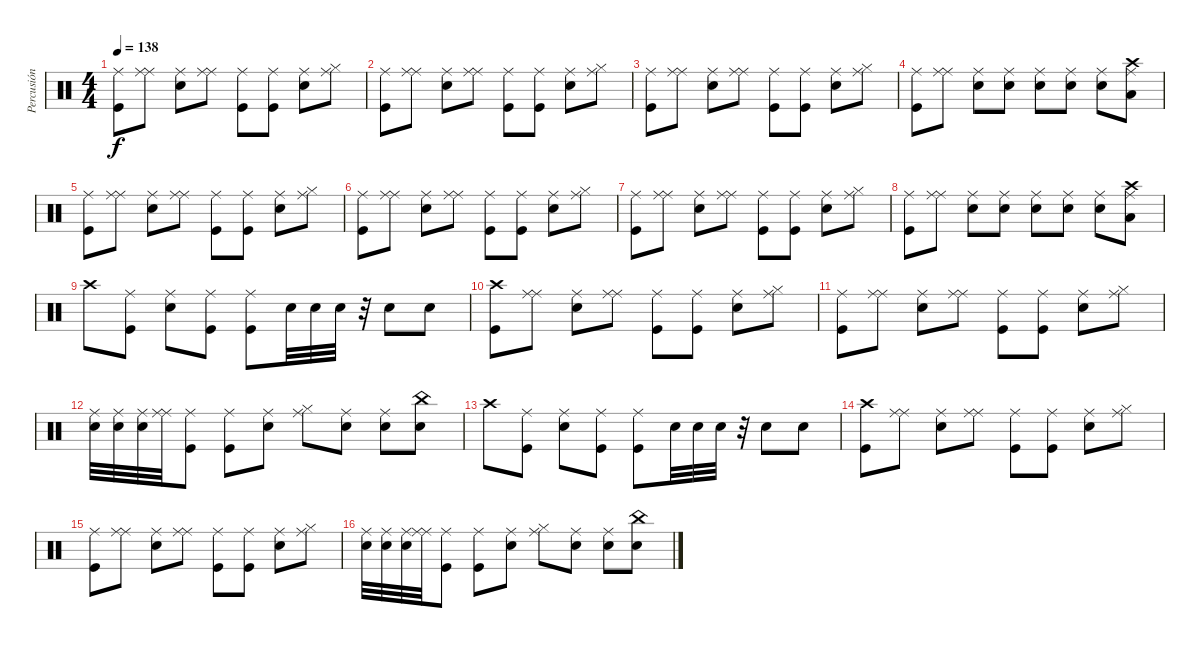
\track ("Percusión" "Percusión") {instrument percussion}
\staff {score}
\articulation defaults
\ts (4 4)
\tempo 138
\clef neutral
\ks c
("Ride (middle)" "Kick (hit)").8{dy f} ("Ride (middle)" "Ride (middle)").8 ("Ride (middle)" "Snare (hit) 2").8 ("Ride (middle)" "Ride (middle)").8 ("Ride (middle)" "Kick (hit)").8 ("Ride (middle)" "Kick (hit)").8 ("Ride (middle)" "Snare (hit) 2").8 ("Ride (middle)" "Hi-Hat (closed)").8 |
("Ride (middle)" "Kick (hit)").8 ("Ride (middle)" "Ride (middle)").8 ("Ride (middle)" "Snare (hit) 2").8 ("Ride (middle)" "Ride (middle)").8 ("Ride (middle)" "Kick (hit)").8 ("Ride (middle)" "Kick (hit)").8 ("Ride (middle)" "Snare (hit) 2").8 ("Ride (middle)" "Hi-Hat (closed)").8 |
("Ride (middle)" "Kick (hit)").8 ("Ride (middle)" "Ride (middle)").8 ("Ride (middle)" "Snare (hit) 2").8 ("Ride (middle)" "Ride (middle)").8 ("Ride (middle)" "Kick (hit)").8 ("Ride (middle)" "Kick (hit)").8 ("Ride (middle)" "Snare (hit) 2").8 ("Ride (middle)" "Hi-Hat (closed)").8 |
("Ride (middle)" "Kick (hit)").8 ("Ride (middle)" "Ride (middle)").8 ("Ride (middle)" "Snare (hit) 2").8 ("Ride (middle)" "Snare (hit) 2").8 ("Ride (middle)" "Snare (hit) 2").8 ("Ride (middle)" "Snare (hit) 2").8 ("Ride (middle)" "Snare (hit) 2").8 ("Ride (middle)" "Low Tom (hit)" "Crash high (hit)").8 |
("Ride (middle)" "Kick (hit)").8 ("Ride (middle)" "Ride (middle)").8 ("Ride (middle)" "Snare (hit) 2").8 ("Ride (middle)" "Ride (middle)").8 ("Ride (middle)" "Kick (hit)").8 ("Ride (middle)" "Kick (hit)").8 ("Ride (middle)" "Snare (hit) 2").8 ("Ride (middle)" "Hi-Hat (closed)").8 |
("Ride (middle)" "Kick (hit)").8 ("Ride (middle)" "Ride (middle)").8 ("Ride (middle)" "Snare (hit) 2").8 ("Ride (middle)" "Ride (middle)").8 ("Ride (middle)" "Kick (hit)").8 ("Ride (middle)" "Kick (hit)").8 ("Ride (middle)" "Snare (hit) 2").8 ("Ride (middle)" "Hi-Hat (closed)").8 |
("Ride (middle)" "Kick (hit)").8 ("Ride (middle)" "Ride (middle)").8 ("Ride (middle)" "Snare (hit) 2").8 ("Ride (middle)" "Ride (middle)").8 ("Ride (middle)" "Kick (hit)").8 ("Ride (middle)" "Kick (hit)").8 ("Ride (middle)" "Snare (hit) 2").8 ("Ride (middle)" "Hi-Hat (closed)").8 |
("Ride (middle)" "Kick (hit)").8 ("Ride (middle)" "Ride (middle)").8 ("Ride (middle)" "Snare (hit) 2").8 ("Ride (middle)" "Snare (hit) 2").8 ("Ride (middle)" "Snare (hit) 2").8 ("Ride (middle)" "Snare (hit) 2").8 ("Ride (middle)" "Snare (hit) 2").8 ("Ride (middle)" "Low Tom (hit)" "Crash high (hit)").8 |
"Crash high (hit)".8 ("Kick (hit)" "Ride (middle)").8 ("Snare (hit) 2" "Ride (middle)").8 ("Kick (hit)" "Ride (middle)").8 ("Kick (hit)" "Ride (middle)").8 "Snare (hit) 2".32 "Snare (hit) 2".32 "Snare (hit) 2".32 r.32 "Snare (hit) 2".8 "Snare (hit) 2".8 |
("Crash high (hit)" "Kick (hit)").8 ("Ride (middle)" "Ride (middle)").8 ("Ride (middle)" "Snare (hit) 2").8 ("Ride (middle)" "Ride (middle)").8 ("Ride (middle)" "Kick (hit)").8 ("Ride (middle)" "Kick (hit)").8 ("Ride (middle)" "Snare (hit) 2").8 ("Ride (middle)" "Hi-Hat (closed)").8 |
("Ride (middle)" "Kick (hit)").8 ("Ride (middle)" "Ride (middle)").8 ("Ride (middle)" "Snare (hit) 2").8 ("Ride (middle)" "Ride (middle)").8 ("Ride (middle)" "Kick (hit)").8 ("Ride (middle)" "Kick (hit)").8 ("Ride (middle)" "Snare (hit) 2").8 ("Ride (middle)" "Hi-Hat (closed)").8 |
("Ride (middle)" "Snare (hit) 2").32 ("Ride (middle)" "Snare (hit) 2").32 ("Ride (middle)" "Snare (hit) 2").32 ("Ride (middle)" "Ride (middle)").32 ("Ride (middle)" "Kick (hit)").8 ("Ride (middle)" "Kick (hit)").8 ("Ride (middle)" "Snare (hit) 2").8 ("Ride (middle)" "Hi-Hat (closed)").8 ("Ride (middle)" "Snare (hit) 2").8 ("Ride (middle)" "Snare (hit) 2").8 ("China (hit)" "Snare (hit) 2").8 |
"Crash high (hit)".8 ("Kick (hit)" "Ride (middle)").8 ("Snare (hit) 2" "Ride (middle)").8 ("Kick (hit)" "Ride (middle)").8 ("Kick (hit)" "Ride (middle)").8 "Snare (hit) 2".32 "Snare (hit) 2".32 "Snare (hit) 2".32 r.32 "Snare (hit) 2".8 "Snare (hit) 2".8 |
("Crash high (hit)" "Kick (hit)").8 ("Ride (middle)" "Ride (middle)").8 ("Ride (middle)" "Snare (hit) 2").8 ("Ride (middle)" "Ride (middle)").8 ("Ride (middle)" "Kick (hit)").8 ("Ride (middle)" "Kick (hit)").8 ("Ride (middle)" "Snare (hit) 2").8 ("Ride (middle)" "Hi-Hat (closed)").8 |
("Ride (middle)" "Kick (hit)").8 ("Ride (middle)" "Ride (middle)").8 ("Ride (middle)" "Snare (hit) 2").8 ("Ride (middle)" "Ride (middle)").8 ("Ride (middle)" "Kick (hit)").8 ("Ride (middle)" "Kick (hit)").8 ("Ride (middle)" "Snare (hit) 2").8 ("Ride (middle)" "Hi-Hat (closed)").8 |
("Ride (middle)" "Snare (hit) 2").32 ("Ride (middle)" "Snare (hit) 2").32 ("Ride (middle)" "Snare (hit) 2").32 ("Ride (middle)" "Ride (middle)").32 ("Ride (middle)" "Kick (hit)").8 ("Ride (middle)" "Kick (hit)").8 ("Ride (middle)" "Snare (hit) 2").8 ("Ride (middle)" "Hi-Hat (closed)").8 ("Ride (middle)" "Snare (hit) 2").8 ("Ride (middle)" "Snare (hit) 2").8 ("China (hit)" "Snare (hit) 2").8
